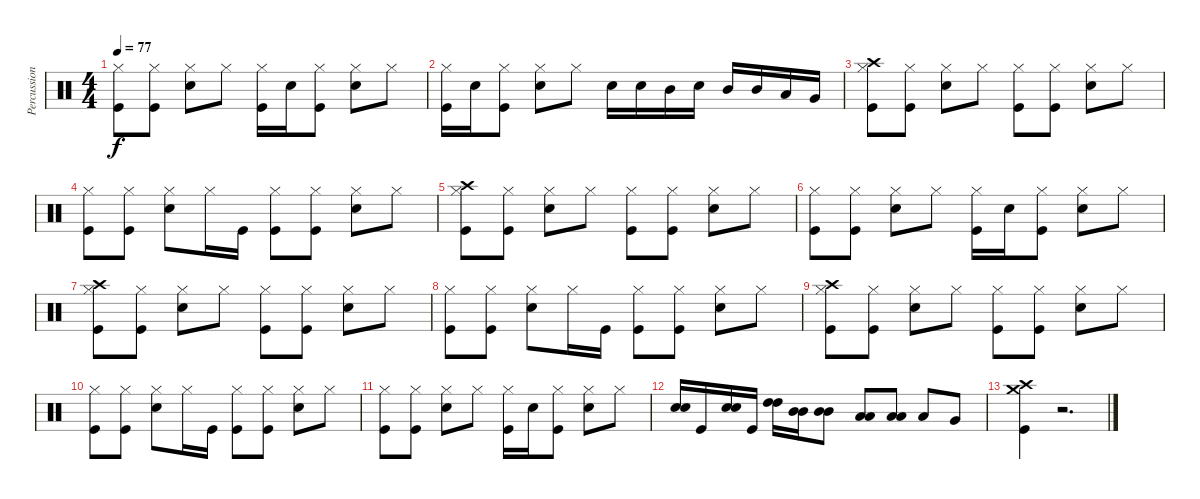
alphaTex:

\track ("Percussion" "Percussion") {instrument percussion}
\staff {score}
\articulation defaults
\ts (4 4)
\tempo 77
\clef neutral
\ks c
("Hi-Hat (closed)" "Kick (hit)").8{dy f} ("Hi-Hat (closed)" "Kick (hit)").8 ("Hi-Hat (closed)" "Electric Snare (hit)").8 "Hi-Hat (closed)".8 ("Hi-Hat (closed)" "Kick (hit)").16 "Electric Snare (hit)".16 ("Hi-Hat (closed)" "Kick (hit)").8 ("Hi-Hat (closed)" "Electric Snare (hit)").8 "Hi-Hat (closed)".8 |
("Hi-Hat (closed)" "Kick (hit)").16 "Electric Snare (hit)".16 ("Hi-Hat (closed)" "Kick (hit)").8 ("Hi-Hat (closed)" "Electric Snare (hit)").8 "Hi-Hat (closed)".8 "Electric Snare (hit)".16 "Electric Snare (hit)".16 "Mid Tom (hit)".16 "Electric Snare (hit)".16 "Mid Tom (hit)".16 "Mid Tom (hit)".16 "Low Tom (hit)".16 "Very Low Tom (hit)".16 |
("Crash high (hit)" "Hi-Hat (closed)" "Kick (hit)").8 ("Hi-Hat (closed)" "Kick (hit)").8 ("Hi-Hat (closed)" "Electric Snare (hit)").8 "Hi-Hat (closed)".8 ("Hi-Hat (closed)" "Kick (hit)").8 ("Hi-Hat (closed)" "Kick (hit)").8 ("Hi-Hat (closed)" "Electric Snare (hit)").8 "Hi-Hat (closed)".8 |
("Hi-Hat (closed)" "Kick (hit)").8 ("Hi-Hat (closed)" "Kick (hit)").8 ("Hi-Hat (closed)" "Electric Snare (hit)").8 "Hi-Hat (closed)".16 "Kick (hit)".16 ("Hi-Hat (closed)" "Kick (hit)").8 ("Hi-Hat (closed)" "Kick (hit)").8 ("Hi-Hat (closed)" "Electric Snare (hit)").8 "Hi-Hat (closed)".8 |
("Crash high (hit)" "Hi-Hat (closed)" "Kick (hit)").8 ("Hi-Hat (closed)" "Kick (hit)").8 ("Hi-Hat (closed)" "Electric Snare (hit)").8 "Hi-Hat (closed)".8 ("Hi-Hat (closed)" "Kick (hit)").8 ("Hi-Hat (closed)" "Kick (hit)").8 ("Hi-Hat (closed)" "Electric Snare (hit)").8 "Hi-Hat (closed)".8 |
("Hi-Hat (closed)" "Kick (hit)").8 ("Hi-Hat (closed)" "Kick (hit)").8 ("Hi-Hat (closed)" "Electric Snare (hit)").8 "Hi-Hat (closed)".8 ("Hi-Hat (closed)" "Kick (hit)").16 "Electric Snare (hit)".16 ("Hi-Hat (closed)" "Kick (hit)").8 ("Hi-Hat (closed)" "Electric Snare (hit)").8 "Hi-Hat (closed)".8 |
("Crash high (hit)" "Hi-Hat (closed)" "Kick (hit)").8 ("Hi-Hat (closed)" "Kick (hit)").8 ("Hi-Hat (closed)" "Electric Snare (hit)").8 "Hi-Hat (closed)".8 ("Hi-Hat (closed)" "Kick (hit)").8 ("Hi-Hat (closed)" "Kick (hit)").8 ("Hi-Hat (closed)" "Electric Snare (hit)").8 "Hi-Hat (closed)".8 |
("Hi-Hat (closed)" "Kick (hit)").8 ("Hi-Hat (closed)" "Kick (hit)").8 ("Hi-Hat (closed)" "Electric Snare (hit)").8 "Hi-Hat (closed)".16 "Kick (hit)".16 ("Hi-Hat (closed)" "Kick (hit)").8 ("Hi-Hat (closed)" "Kick (hit)").8 ("Hi-Hat (closed)" "Electric Snare (hit)").8 "Hi-Hat (closed)".8 |
("Crash high (hit)" "Hi-Hat (closed)" "Kick (hit)").8 ("Hi-Hat (closed)" "Kick (hit)").8 ("Hi-Hat (closed)" "Electric Snare (hit)").8 "Hi-Hat (closed)".8 ("Hi-Hat (closed)" "Kick (hit)").8 ("Hi-Hat (closed)" "Kick (hit)").8 ("Hi-Hat (closed)" "Electric Snare (hit)").8 "Hi-Hat (closed)".8 |
("Hi-Hat (closed)" "Kick (hit)").8 ("Hi-Hat (closed)" "Kick (hit)").8 ("Hi-Hat (closed)" "Electric Snare (hit)").8 "Hi-Hat (closed)".16 "Kick (hit)".16 ("Hi-Hat (closed)" "Kick (hit)").8 ("Hi-Hat (closed)" "Kick (hit)").8 ("Hi-Hat (closed)" "Electric Snare (hit)").8 "Hi-Hat (closed)".8 |
("Hi-Hat (closed)" "Kick (hit)").8 ("Hi-Hat (closed)" "Kick (hit)").8 ("Hi-Hat (closed)" "Electric Snare (hit)").8 "Hi-Hat (closed)".8 ("Hi-Hat (closed)" "Kick (hit)").16 "Electric Snare (hit)".16 ("Hi-Hat (closed)" "Kick (hit)").8 ("Hi-Hat (closed)" "Electric Snare (hit)").8 "Hi-Hat (closed)".8 |
("Electric Snare (hit)" "Electric Snare (hit)").16 "Kick (hit)".16 ("Electric Snare (hit)" "Electric Snare (hit)").16 "Kick (hit)".16 ("High Tom (hit)" "High Tom (hit)").16 ("Mid Tom (hit)" "Mid Tom (hit)").16 ("Mid Tom (hit)" "Mid Tom (hit)").8 ("Low Tom (hit)" "Low Tom (hit)").8 ("Low Tom (hit)" "Low Tom (hit)").8 "Low Tom (hit)".8 "Very Low Tom (hit)".8 |
("Crash high (hit)" "Crash medium (hit)" "Kick (hit)").4 r.2{d}
